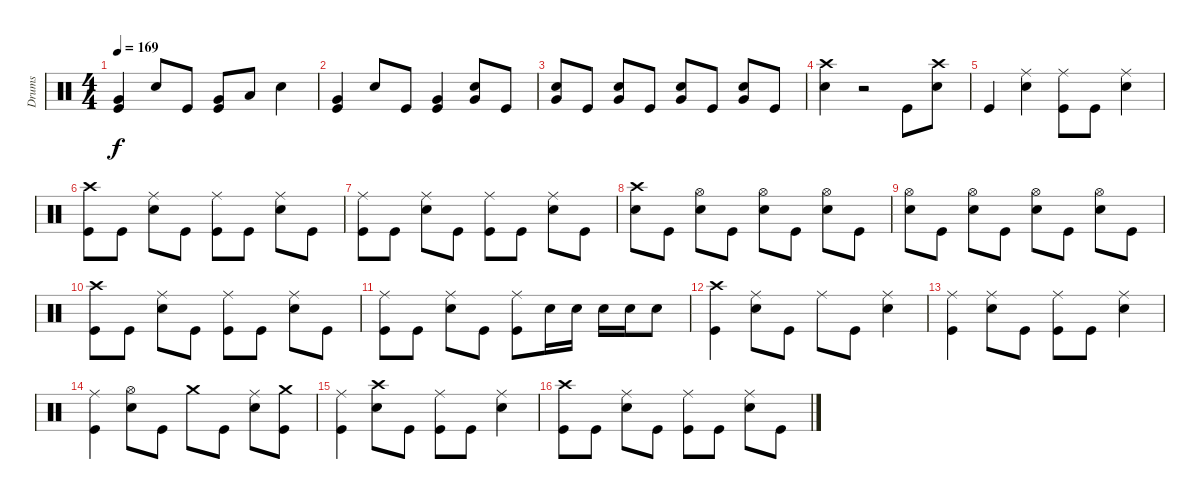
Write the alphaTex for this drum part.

\track ("Drums" "Drums") {instrument percussion}
\staff {score}
\articulation defaults
\ts (4 4)
\tempo 169
\clef neutral
\ks c
("Very Low Tom (hit)" "Kick (hit)").4{dy f} "Snare (hit) 2".8 "Kick (hit)".8 ("Very Low Tom (hit)" "Kick (hit)").8 "Low Floor Tom (hit)".8 "Snare (hit) 2".4 |
("Very Low Tom (hit)" "Kick (hit)").4 "Snare (hit) 2".8 "Kick (hit)".8 ("Very Low Tom (hit)" "Kick (hit)").4 ("Very Low Tom (hit)" "Snare (hit) 2").8 "Kick (hit)".8 |
("Very Low Tom (hit)" "Snare (hit) 2").8 "Kick (hit)".8 ("Very Low Tom (hit)" "Snare (hit) 2").8 "Kick (hit)".8 ("Very Low Tom (hit)" "Snare (hit) 2").8 "Kick (hit)".8 ("Very Low Tom (hit)" "Snare (hit) 2").8 "Kick (hit)".8 |
("Crash high (hit)" "Snare (hit) 2").4 r.2 "Kick (hit)".8 ("Crash high (hit)" "Snare (hit) 2").8 |
"Kick (hit)".4 ("Ride (middle)" "Snare (hit) 2").4 ("Ride (middle)" "Kick (hit)").8 "Kick (hit)".8 ("Ride (middle)" "Snare (hit) 2").4 |
("Crash high (hit)" "Kick (hit)").8 "Kick (hit)".8 ("Ride (middle)" "Snare (hit) 2").8 "Kick (hit)".8 ("Ride (middle)" "Kick (hit)").8 "Kick (hit)".8 ("Ride (middle)" "Snare (hit) 2").8 "Kick (hit)".8 |
("Ride (middle)" "Kick (hit)").8 "Kick (hit)".8 ("Ride (middle)" "Snare (hit) 2").8 "Kick (hit)".8 ("Ride (middle)" "Kick (hit)").8 "Kick (hit)".8 ("Ride (middle)" "Snare (hit) 2").8 "Kick (hit)".8 |
("Crash high (hit)" "Snare (hit) 2").8 "Kick (hit)".8 ("Hi-Hat (open)" "Snare (hit) 2").8 "Kick (hit)".8 ("Hi-Hat (open)" "Snare (hit) 2").8 "Kick (hit)".8 ("Hi-Hat (open)" "Snare (hit) 2").8 "Kick (hit)".8 |
("Hi-Hat (open)" "Snare (hit) 2").8 "Kick (hit)".8 ("Hi-Hat (open)" "Snare (hit) 2").8 "Kick (hit)".8 ("Hi-Hat (open)" "Snare (hit) 2").8 "Kick (hit)".8 ("Hi-Hat (open)" "Snare (hit) 2").8 "Kick (hit)".8 |
("Crash high (hit)" "Kick (hit)").8 "Kick (hit)".8 ("Ride (middle)" "Snare (hit) 2").8 "Kick (hit)".8 ("Ride (middle)" "Kick (hit)").8 "Kick (hit)".8 ("Ride (middle)" "Snare (hit) 2").8 "Kick (hit)".8 |
("Ride (middle)" "Kick (hit)").8 "Kick (hit)".8 ("Ride (middle)" "Snare (hit) 2").8 "Kick (hit)".8 ("Ride (middle)" "Kick (hit)").8 "Snare (hit) 2".16 "Snare (hit) 2".16 "Snare (hit) 2".16 "Snare (hit) 2".16 "Snare (hit) 2".8 |
("Crash high (hit)" "Kick (hit)").4 ("Ride (middle)" "Snare (hit) 2").8 "Kick (hit)".8 "Ride (middle)".8 "Kick (hit)".8 ("Ride (middle)" "Snare (hit) 2").4 |
("Ride (middle)" "Kick (hit)").4 ("Ride (middle)" "Snare (hit) 2").8 "Kick (hit)".8 ("Ride (middle)" "Kick (hit)").8 "Kick (hit)".8 ("Ride (middle)" "Snare (hit) 2").4 |
("Ride (middle)" "Kick (hit)").4 ("Hi-Hat (open)" "Snare (hit) 2").8 "Kick (hit)".8 "Crash medium (hit)".8 "Kick (hit)".8 ("Ride (middle)" "Snare (hit) 2").8 ("Crash medium (hit)" "Kick (hit)").8 |
("Ride (middle)" "Kick (hit)").4 ("Crash high (hit)" "Snare (hit) 2").8 "Kick (hit)".8 ("Ride (middle)" "Kick (hit)").8 "Kick (hit)".8 ("Ride (middle)" "Snare (hit) 2").4 |
("Crash high (hit)" "Kick (hit)").8 "Kick (hit)".8 ("Ride (middle)" "Snare (hit) 2").8 "Kick (hit)".8 ("Ride (middle)" "Kick (hit)").8 "Kick (hit)".8 ("Ride (middle)" "Snare (hit) 2").8 "Kick (hit)".8
